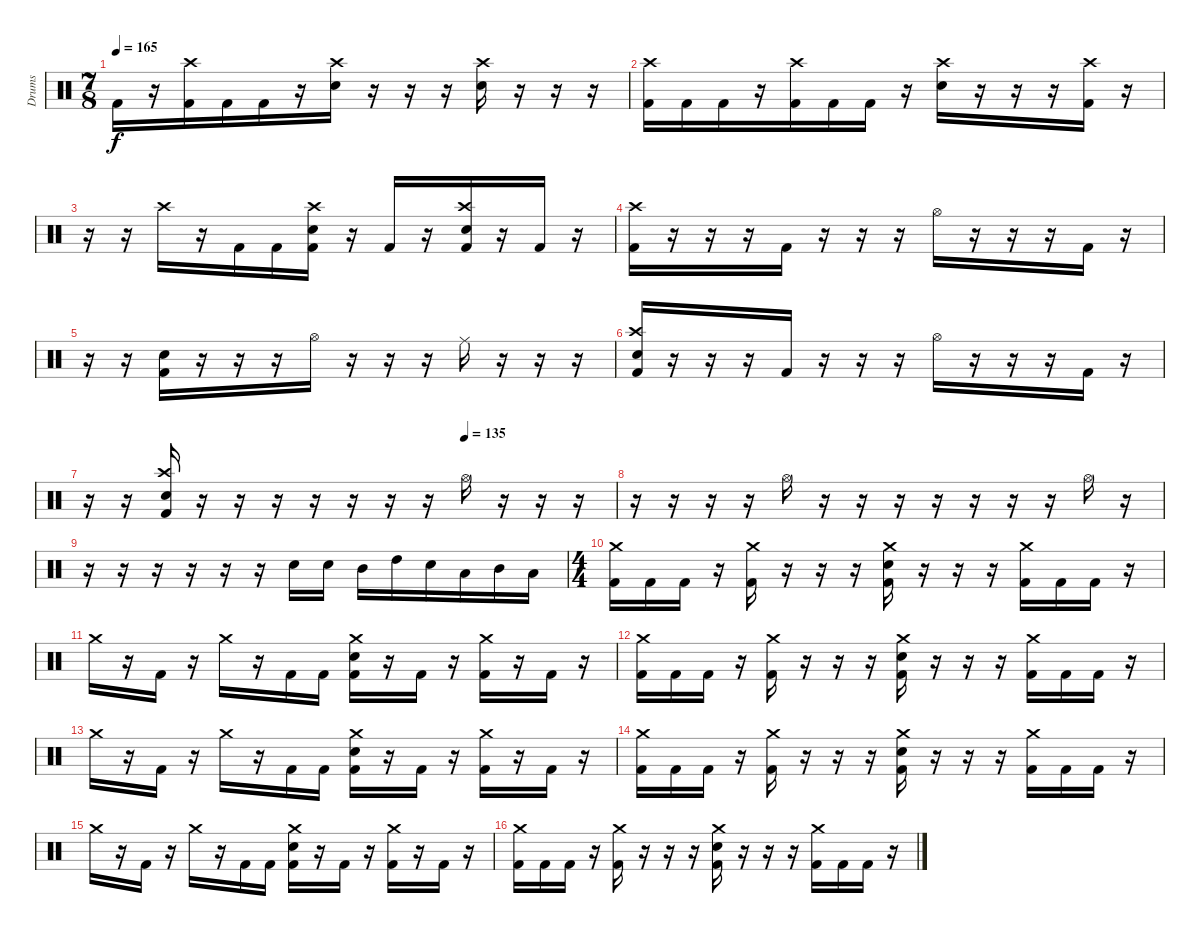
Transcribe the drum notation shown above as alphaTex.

\track ("Drums" "Drums") {instrument percussion}
\staff {score}
\articulation defaults
\ts (7 8)
\tempo 165
\clef neutral
\ks c "Kick (hit) 2".16{dy f}
r.16 ("Crash high (hit)" "Kick (hit) 2").16 "Kick (hit) 2".16 "Kick (hit) 2".16 r.16 ("Crash high (hit)" "Electric Snare (hit)").16 r.16 r.16 r.16 ("Crash high (hit)" "Electric Snare (hit)").16 r.16 r.16 r.16 |
("Crash high (hit)" "Kick (hit) 2").16 "Kick (hit) 2".16 "Kick (hit) 2".16 r.16 ("Crash high (hit)" "Kick (hit) 2").16 "Kick (hit) 2".16 "Kick (hit) 2".16 r.16 ("Crash high (hit)" "Electric Snare (hit)").16 r.16 r.16 r.16 ("Crash high (hit)" "Kick (hit) 2").16 r.16 |
r.16 r.16 "Crash high (hit)".16 r.16 "Kick (hit) 2".16 "Kick (hit) 2".16 ("Crash high (hit)" "Electric Snare (hit)" "Kick (hit) 2").16 r.16 "Kick (hit) 2".16 r.16 ("Crash high (hit)" "Electric Snare (hit)" "Kick (hit) 2").16 r.16 "Kick (hit) 2".16 r.16 |
("Crash high (hit)" "Kick (hit) 2").16 r.16 r.16 r.16 "Kick (hit) 2".16 r.16 r.16 r.16 "Hi-Hat (open)".16 r.16 r.16 r.16 "Kick (hit) 2".16 r.16 |
r.16 r.16 ("Electric Snare (hit)" "Kick (hit) 2").16 r.16 r.16 r.16 "Hi-Hat (open)".16 r.16 r.16 r.16 "Ride (middle)".16 r.16 r.16 r.16 |
("Crash high (hit)" "Electric Snare (hit)" "Kick (hit) 2").16 r.16 r.16 r.16 "Kick (hit) 2".16 r.16 r.16 r.16 "Hi-Hat (open)".16 r.16 r.16 r.16 "Kick (hit) 2".16 r.16 |
\tempo (135 0.7142857142857143)
r.16 r.16 ("Crash high (hit)" "Electric Snare (hit)" "Kick (hit) 2").16 r.16 r.16 r.16 r.16 r.16 r.16 r.16 "Hi-Hat (open)".16 r.16 r.16 r.16 |
r.16 r.16 r.16 r.16 "Hi-Hat (open)".16 r.16 r.16 r.16 r.16 r.16 r.16 r.16 "Hi-Hat (open)".16 r.16 |
r.16 r.16 r.16 r.16 r.16 r.16 "Electric Snare (hit)".16 "Electric Snare (hit)".16 "Mid Tom (hit)".16 "High Tom (hit)".16 "Electric Snare (hit)".16 "Low Tom (hit)".16 "Mid Tom (hit)".16 "Low Tom (hit)".16 |
\ts (4 4)
("Crash medium (hit)" "Kick (hit) 2").16 "Kick (hit) 2".16 "Kick (hit) 2".16 r.16 ("Crash medium (hit)" "Kick (hit) 2").16 r.16 r.16 r.16 ("Crash medium (hit)" "Electric Snare (hit)" "Kick (hit) 2").16 r.16 r.16 r.16 ("Crash medium (hit)" "Kick (hit) 2").16 "Kick (hit) 2".16 "Kick (hit) 2".16 r.16 |
"Crash medium (hit)".16 r.16 "Kick (hit) 2".16 r.16 "Crash medium (hit)".16 r.16 "Kick (hit) 2".16 "Kick (hit) 2".16 ("Crash medium (hit)" "Electric Snare (hit)" "Kick (hit) 2").16 r.16 "Kick (hit) 2".16 r.16 ("Crash medium (hit)" "Kick (hit) 2").16 r.16 "Kick (hit) 2".16 r.16 |
("Crash medium (hit)" "Kick (hit) 2").16 "Kick (hit) 2".16 "Kick (hit) 2".16 r.16 ("Crash medium (hit)" "Kick (hit) 2").16 r.16 r.16 r.16 ("Crash medium (hit)" "Electric Snare (hit)" "Kick (hit) 2").16 r.16 r.16 r.16 ("Crash medium (hit)" "Kick (hit) 2").16 "Kick (hit) 2".16 "Kick (hit) 2".16 r.16 |
"Crash medium (hit)".16 r.16 "Kick (hit) 2".16 r.16 "Crash medium (hit)".16 r.16 "Kick (hit) 2".16 "Kick (hit) 2".16 ("Crash medium (hit)" "Electric Snare (hit)" "Kick (hit) 2").16 r.16 "Kick (hit) 2".16 r.16 ("Crash medium (hit)" "Kick (hit) 2").16 r.16 "Kick (hit) 2".16 r.16 |
("Crash medium (hit)" "Kick (hit) 2").16 "Kick (hit) 2".16 "Kick (hit) 2".16 r.16 ("Crash medium (hit)" "Kick (hit) 2").16 r.16 r.16 r.16 ("Crash medium (hit)" "Electric Snare (hit)" "Kick (hit) 2").16 r.16 r.16 r.16 ("Crash medium (hit)" "Kick (hit) 2").16 "Kick (hit) 2".16 "Kick (hit) 2".16 r.16 |
"Crash medium (hit)".16 r.16 "Kick (hit) 2".16 r.16 "Crash medium (hit)".16 r.16 "Kick (hit) 2".16 "Kick (hit) 2".16 ("Crash medium (hit)" "Electric Snare (hit)" "Kick (hit) 2").16 r.16 "Kick (hit) 2".16 r.16 ("Crash medium (hit)" "Kick (hit) 2").16 r.16 "Kick (hit) 2".16 r.16 |
("Crash medium (hit)" "Kick (hit) 2").16 "Kick (hit) 2".16 "Kick (hit) 2".16 r.16 ("Crash medium (hit)" "Kick (hit) 2").16 r.16 r.16 r.16 ("Crash medium (hit)" "Electric Snare (hit)" "Kick (hit) 2").16 r.16 r.16 r.16 ("Crash medium (hit)" "Kick (hit) 2").16 "Kick (hit) 2".16 "Kick (hit) 2".16 r.16
